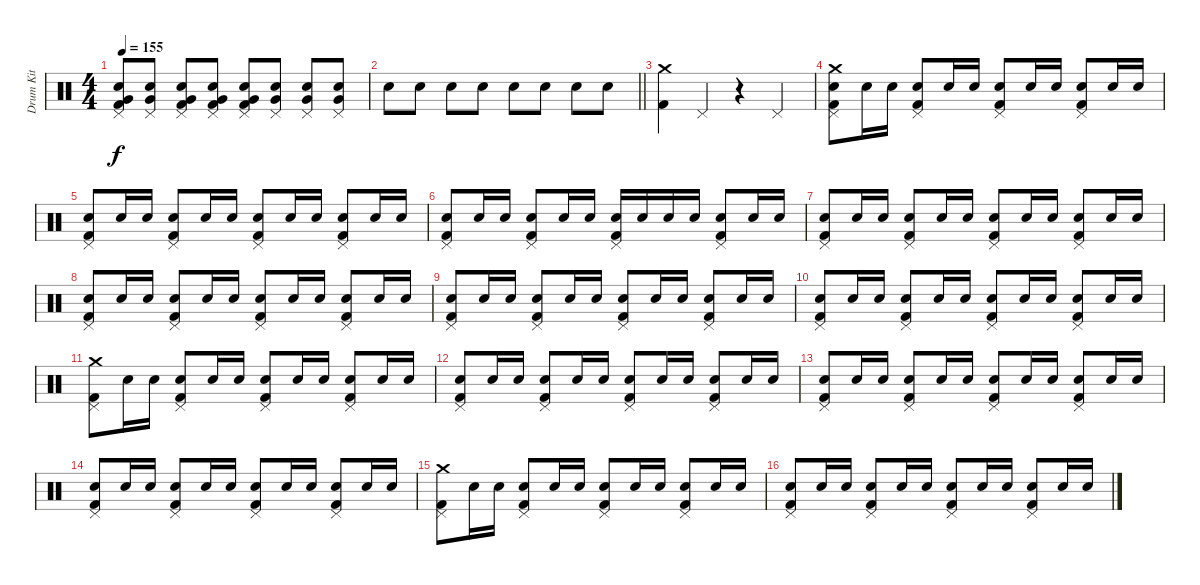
\track ("Drum Kit" "Drum Kit") {instrument percussion}
\staff {score}
\articulation defaults
\ts (4 4)
\tempo 155
\clef neutral
\ks c
("Pedal Hi-Hat (hit)" "Very Low Tom (hit)" "Snare (hit) 2" "Kick (hit) 2").8{dy f} ("Pedal Hi-Hat (hit)" "Very Low Tom (hit)" "Snare (hit) 2").8 ("Pedal Hi-Hat (hit)" "Very Low Tom (hit)" "Snare (hit) 2" "Kick (hit) 2").8 ("Pedal Hi-Hat (hit)" "Very Low Tom (hit)" "Snare (hit) 2" "Kick (hit) 2").8 ("Pedal Hi-Hat (hit)" "Very Low Tom (hit)" "Snare (hit) 2" "Kick (hit) 2").8 ("Pedal Hi-Hat (hit)" "Very Low Tom (hit)" "Snare (hit) 2").8 ("Pedal Hi-Hat (hit)" "Very Low Tom (hit)" "Snare (hit) 2").8 ("Pedal Hi-Hat (hit)" "Very Low Tom (hit)" "Snare (hit) 2").8 |
\barLineRight lightlight "Snare (hit) 2".8 "Snare (hit) 2".8 "Snare (hit) 2".8 "Snare (hit) 2".8 "Snare (hit) 2".8 "Snare (hit) 2".8 "Snare (hit) 2".8 "Snare (hit) 2".8
|
("Crash medium (hit)" "Kick (hit) 2").4 "Pedal Hi-Hat (hit)".4 r.4 "Pedal Hi-Hat (hit)".4 |
("Crash medium (hit)" "Pedal Hi-Hat (hit)" "Snare (hit) 2" "Kick (hit) 2").8{volume 11} "Snare (hit) 2".16 "Snare (hit) 2".16 ("Pedal Hi-Hat (hit)" "Snare (hit) 2" "Kick (hit) 2").8 "Snare (hit) 2".16 "Snare (hit) 2".16 ("Pedal Hi-Hat (hit)" "Snare (hit) 2" "Kick (hit) 2").8 "Snare (hit) 2".16 "Snare (hit) 2".16 ("Pedal Hi-Hat (hit)" "Snare (hit) 2" "Kick (hit) 2").8 "Snare (hit) 2".16 "Snare (hit) 2".16 |
("Pedal Hi-Hat (hit)" "Snare (hit) 2" "Kick (hit) 2").8 "Snare (hit) 2".16 "Snare (hit) 2".16 ("Pedal Hi-Hat (hit)" "Snare (hit) 2" "Kick (hit) 2").8 "Snare (hit) 2".16 "Snare (hit) 2".16 ("Pedal Hi-Hat (hit)" "Snare (hit) 2" "Kick (hit) 2").8 "Snare (hit) 2".16 "Snare (hit) 2".16 ("Pedal Hi-Hat (hit)" "Snare (hit) 2" "Kick (hit) 2").8 "Snare (hit) 2".16 "Snare (hit) 2".16 |
("Pedal Hi-Hat (hit)" "Snare (hit) 2" "Kick (hit) 2").8 "Snare (hit) 2".16 "Snare (hit) 2".16 ("Pedal Hi-Hat (hit)" "Snare (hit) 2" "Kick (hit) 2").8 "Snare (hit) 2".16 "Snare (hit) 2".16 ("Pedal Hi-Hat (hit)" "Snare (hit) 2" "Kick (hit) 2").16 "Snare (hit) 2".16 "Snare (hit) 2".16 "Snare (hit) 2".16 ("Pedal Hi-Hat (hit)" "Snare (hit) 2" "Kick (hit) 2").8 "Snare (hit) 2".16 "Snare (hit) 2".16 |
("Pedal Hi-Hat (hit)" "Snare (hit) 2" "Kick (hit) 2").8 "Snare (hit) 2".16 "Snare (hit) 2".16 ("Pedal Hi-Hat (hit)" "Snare (hit) 2" "Kick (hit) 2").8 "Snare (hit) 2".16 "Snare (hit) 2".16 ("Pedal Hi-Hat (hit)" "Snare (hit) 2" "Kick (hit) 2").8 "Snare (hit) 2".16 "Snare (hit) 2".16 ("Pedal Hi-Hat (hit)" "Snare (hit) 2" "Kick (hit) 2").8 "Snare (hit) 2".16 "Snare (hit) 2".16 |
("Pedal Hi-Hat (hit)" "Snare (hit) 2" "Kick (hit) 2").8 "Snare (hit) 2".16 "Snare (hit) 2".16 ("Pedal Hi-Hat (hit)" "Snare (hit) 2" "Kick (hit) 2").8 "Snare (hit) 2".16 "Snare (hit) 2".16 ("Pedal Hi-Hat (hit)" "Snare (hit) 2" "Kick (hit) 2").8 "Snare (hit) 2".16 "Snare (hit) 2".16 ("Pedal Hi-Hat (hit)" "Snare (hit) 2" "Kick (hit) 2").8 "Snare (hit) 2".16 "Snare (hit) 2".16 |
("Pedal Hi-Hat (hit)" "Snare (hit) 2" "Kick (hit) 2").8 "Snare (hit) 2".16 "Snare (hit) 2".16 ("Pedal Hi-Hat (hit)" "Snare (hit) 2" "Kick (hit) 2").8 "Snare (hit) 2".16 "Snare (hit) 2".16 ("Pedal Hi-Hat (hit)" "Snare (hit) 2" "Kick (hit) 2").8 "Snare (hit) 2".16 "Snare (hit) 2".16 ("Pedal Hi-Hat (hit)" "Snare (hit) 2" "Kick (hit) 2").8 "Snare (hit) 2".16 "Snare (hit) 2".16 |
("Pedal Hi-Hat (hit)" "Snare (hit) 2" "Kick (hit) 2").8 "Snare (hit) 2".16 "Snare (hit) 2".16 ("Pedal Hi-Hat (hit)" "Snare (hit) 2" "Kick (hit) 2").8 "Snare (hit) 2".16 "Snare (hit) 2".16 ("Pedal Hi-Hat (hit)" "Snare (hit) 2" "Kick (hit) 2").8 "Snare (hit) 2".16 "Snare (hit) 2".16 ("Pedal Hi-Hat (hit)" "Snare (hit) 2" "Kick (hit) 2").8 "Snare (hit) 2".16 "Snare (hit) 2".16 |
("Crash medium (hit)" "Pedal Hi-Hat (hit)" "Kick (hit) 2").8 "Snare (hit) 2".16 "Snare (hit) 2".16 ("Pedal Hi-Hat (hit)" "Snare (hit) 2" "Kick (hit) 2").8 "Snare (hit) 2".16 "Snare (hit) 2".16 ("Pedal Hi-Hat (hit)" "Snare (hit) 2" "Kick (hit) 2").8 "Snare (hit) 2".16 "Snare (hit) 2".16 ("Pedal Hi-Hat (hit)" "Snare (hit) 2" "Kick (hit) 2").8 "Snare (hit) 2".16 "Snare (hit) 2".16 |
("Pedal Hi-Hat (hit)" "Snare (hit) 2" "Kick (hit) 2").8 "Snare (hit) 2".16 "Snare (hit) 2".16 ("Pedal Hi-Hat (hit)" "Snare (hit) 2" "Kick (hit) 2").8 "Snare (hit) 2".16 "Snare (hit) 2".16 ("Pedal Hi-Hat (hit)" "Snare (hit) 2" "Kick (hit) 2").8 "Snare (hit) 2".16 "Snare (hit) 2".16 ("Pedal Hi-Hat (hit)" "Snare (hit) 2" "Kick (hit) 2").8 "Snare (hit) 2".16 "Snare (hit) 2".16 |
("Pedal Hi-Hat (hit)" "Snare (hit) 2" "Kick (hit) 2").8 "Snare (hit) 2".16 "Snare (hit) 2".16 ("Pedal Hi-Hat (hit)" "Snare (hit) 2" "Kick (hit) 2").8 "Snare (hit) 2".16 "Snare (hit) 2".16 ("Pedal Hi-Hat (hit)" "Snare (hit) 2" "Kick (hit) 2").8 "Snare (hit) 2".16 "Snare (hit) 2".16 ("Pedal Hi-Hat (hit)" "Snare (hit) 2" "Kick (hit) 2").8 "Snare (hit) 2".16 "Snare (hit) 2".16 |
("Pedal Hi-Hat (hit)" "Snare (hit) 2" "Kick (hit) 2").8 "Snare (hit) 2".16 "Snare (hit) 2".16 ("Pedal Hi-Hat (hit)" "Snare (hit) 2" "Kick (hit) 2").8 "Snare (hit) 2".16 "Snare (hit) 2".16 ("Pedal Hi-Hat (hit)" "Snare (hit) 2" "Kick (hit) 2").8 "Snare (hit) 2".16 "Snare (hit) 2".16 ("Pedal Hi-Hat (hit)" "Snare (hit) 2" "Kick (hit) 2").8 "Snare (hit) 2".16 "Snare (hit) 2".16 |
("Crash medium (hit)" "Pedal Hi-Hat (hit)" "Kick (hit) 2").8 "Snare (hit) 2".16 "Snare (hit) 2".16 ("Pedal Hi-Hat (hit)" "Snare (hit) 2" "Kick (hit) 2").8 "Snare (hit) 2".16 "Snare (hit) 2".16 ("Pedal Hi-Hat (hit)" "Snare (hit) 2" "Kick (hit) 2").8 "Snare (hit) 2".16 "Snare (hit) 2".16 ("Pedal Hi-Hat (hit)" "Snare (hit) 2" "Kick (hit) 2").8 "Snare (hit) 2".16 "Snare (hit) 2".16 |
("Pedal Hi-Hat (hit)" "Snare (hit) 2" "Kick (hit) 2").8 "Snare (hit) 2".16 "Snare (hit) 2".16 ("Pedal Hi-Hat (hit)" "Snare (hit) 2" "Kick (hit) 2").8 "Snare (hit) 2".16 "Snare (hit) 2".16 ("Pedal Hi-Hat (hit)" "Snare (hit) 2" "Kick (hit) 2").8 "Snare (hit) 2".16 "Snare (hit) 2".16 ("Pedal Hi-Hat (hit)" "Snare (hit) 2" "Kick (hit) 2").8 "Snare (hit) 2".16 "Snare (hit) 2".16
